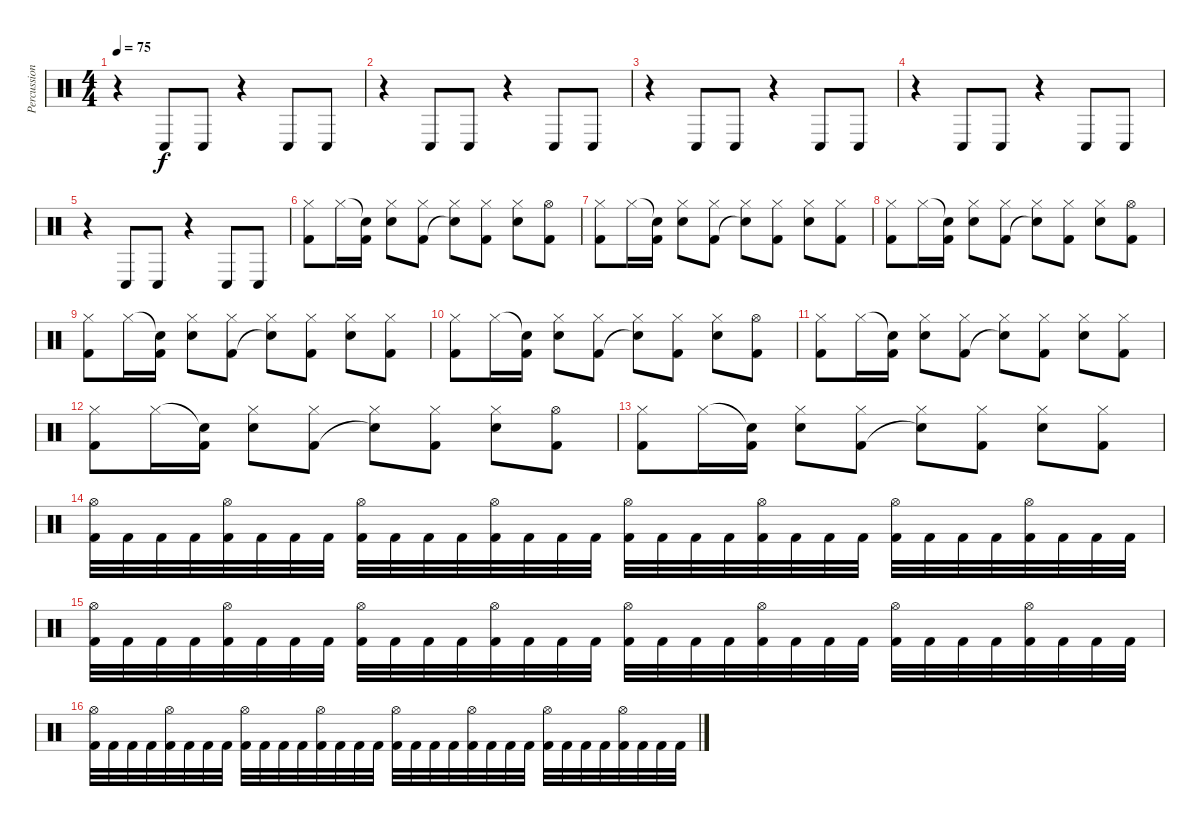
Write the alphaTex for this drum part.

\track ("Percussions" "Percussion") {instrument percussion}
\staff {score}
\articulation defaults
\ts (4 4)
\tempo 75
\clef neutral
\ks c
r.4{dy f} "Conga low (hit)".8 "Conga low (hit)".8 r.4 "Conga low (hit)".8 "Conga low (hit)".8 |
r.4 "Conga low (hit)".8 "Conga low (hit)".8 r.4 "Conga low (hit)".8 "Conga low (hit)".8 |
r.4 "Conga low (hit)".8 "Conga low (hit)".8 r.4 "Conga low (hit)".8 "Conga low (hit)".8 |
r.4 "Conga low (hit)".8 "Conga low (hit)".8 r.4 "Conga low (hit)".8 "Conga low (hit)".8 |
r.4 "Conga low (hit)".8 "Conga low (hit)".8 r.4 "Conga low (hit)".8 "Conga low (hit)".8 |
("Hi-Hat (closed)" "Kick (hit) 2").8{volume 13} "Hi-Hat (closed)".16 ("Snare (hit)"{t} "Kick (hit) 2").16 ("Hi-Hat (closed)" "Electric Snare (hit)").8 ("Hi-Hat (closed)" "Kick (hit) 2").8 ("Hi-Hat (closed)" "Snare (hit)"{t}).8 ("Hi-Hat (closed)" "Kick (hit) 2").8 ("Hi-Hat (closed)" "Electric Snare (hit)").8 ("Hi-Hat (open)" "Kick (hit) 2").8 |
("Hi-Hat (closed)" "Kick (hit) 2").8 "Hi-Hat (closed)".16 ("Snare (hit)"{t} "Kick (hit) 2").16 ("Hi-Hat (closed)" "Electric Snare (hit)").8 ("Hi-Hat (closed)" "Kick (hit) 2").8 ("Hi-Hat (closed)" "Snare (hit)"{t}).8 ("Hi-Hat (closed)" "Kick (hit) 2").8 ("Hi-Hat (closed)" "Electric Snare (hit)").8 ("Hi-Hat (closed)" "Kick (hit) 2").8 |
("Hi-Hat (closed)" "Kick (hit) 2").8 "Hi-Hat (closed)".16 ("Snare (hit)"{t} "Kick (hit) 2").16 ("Hi-Hat (closed)" "Electric Snare (hit)").8 ("Hi-Hat (closed)" "Kick (hit) 2").8 ("Hi-Hat (closed)" "Snare (hit)"{t}).8 ("Hi-Hat (closed)" "Kick (hit) 2").8 ("Hi-Hat (closed)" "Electric Snare (hit)").8 ("Hi-Hat (open)" "Kick (hit) 2").8 |
("Hi-Hat (closed)" "Kick (hit) 2").8 "Hi-Hat (closed)".16 ("Snare (hit)"{t} "Kick (hit) 2").16 ("Hi-Hat (closed)" "Electric Snare (hit)").8 ("Hi-Hat (closed)" "Kick (hit) 2").8 ("Hi-Hat (closed)" "Snare (hit)"{t}).8 ("Hi-Hat (closed)" "Kick (hit) 2").8 ("Hi-Hat (closed)" "Electric Snare (hit)").8 ("Hi-Hat (closed)" "Kick (hit) 2").8 |
("Hi-Hat (closed)" "Kick (hit) 2").8 "Hi-Hat (closed)".16 ("Snare (hit)"{t} "Kick (hit) 2").16 ("Hi-Hat (closed)" "Electric Snare (hit)").8 ("Hi-Hat (closed)" "Kick (hit) 2").8 ("Hi-Hat (closed)" "Snare (hit)"{t}).8 ("Hi-Hat (closed)" "Kick (hit) 2").8 ("Hi-Hat (closed)" "Electric Snare (hit)").8 ("Hi-Hat (open)" "Kick (hit) 2").8 |
("Hi-Hat (closed)" "Kick (hit) 2").8 "Hi-Hat (closed)".16 ("Snare (hit)"{t} "Kick (hit) 2").16 ("Hi-Hat (closed)" "Electric Snare (hit)").8 ("Hi-Hat (closed)" "Kick (hit) 2").8 ("Hi-Hat (closed)" "Snare (hit)"{t}).8 ("Hi-Hat (closed)" "Kick (hit) 2").8 ("Hi-Hat (closed)" "Electric Snare (hit)").8 ("Hi-Hat (closed)" "Kick (hit) 2").8 |
("Hi-Hat (closed)" "Kick (hit) 2").8 "Hi-Hat (closed)".16 ("Snare (hit)"{t} "Kick (hit) 2").16 ("Hi-Hat (closed)" "Electric Snare (hit)").8 ("Hi-Hat (closed)" "Kick (hit) 2").8 ("Hi-Hat (closed)" "Snare (hit)"{t}).8 ("Hi-Hat (closed)" "Kick (hit) 2").8 ("Hi-Hat (closed)" "Electric Snare (hit)").8 ("Hi-Hat (open)" "Kick (hit) 2").8 |
("Hi-Hat (closed)" "Kick (hit) 2").8 "Hi-Hat (closed)".16 ("Snare (hit)"{t} "Kick (hit) 2").16 ("Hi-Hat (closed)" "Electric Snare (hit)").8 ("Hi-Hat (closed)" "Kick (hit) 2").8 ("Hi-Hat (closed)" "Snare (hit)"{t}).8 ("Hi-Hat (closed)" "Kick (hit) 2").8 ("Hi-Hat (closed)" "Electric Snare (hit)").8 ("Hi-Hat (closed)" "Kick (hit) 2").8 |
("Hi-Hat (open)" "Kick (hit) 2").32 "Kick (hit) 2".32 "Kick (hit) 2".32 "Kick (hit) 2".32 ("Hi-Hat (open)" "Kick (hit) 2").32 "Kick (hit) 2".32 "Kick (hit) 2".32 "Kick (hit) 2".32 ("Hi-Hat (open)" "Kick (hit) 2").32 "Kick (hit) 2".32 "Kick (hit) 2".32 "Kick (hit) 2".32 ("Hi-Hat (open)" "Kick (hit) 2").32 "Kick (hit) 2".32 "Kick (hit) 2".32 "Kick (hit) 2".32 ("Hi-Hat (open)" "Kick (hit) 2").32 "Kick (hit) 2".32 "Kick (hit) 2".32 "Kick (hit) 2".32 ("Hi-Hat (open)" "Kick (hit) 2").32 "Kick (hit) 2".32 "Kick (hit) 2".32 "Kick (hit) 2".32 ("Hi-Hat (open)" "Kick (hit) 2").32 "Kick (hit) 2".32 "Kick (hit) 2".32 "Kick (hit) 2".32 ("Hi-Hat (open)" "Kick (hit) 2").32 "Kick (hit) 2".32 "Kick (hit) 2".32 "Kick (hit) 2".32 |
("Hi-Hat (open)" "Kick (hit) 2").32 "Kick (hit) 2".32 "Kick (hit) 2".32 "Kick (hit) 2".32 ("Hi-Hat (open)" "Kick (hit) 2").32 "Kick (hit) 2".32 "Kick (hit) 2".32 "Kick (hit) 2".32 ("Hi-Hat (open)" "Kick (hit) 2").32 "Kick (hit) 2".32 "Kick (hit) 2".32 "Kick (hit) 2".32 ("Hi-Hat (open)" "Kick (hit) 2").32 "Kick (hit) 2".32 "Kick (hit) 2".32 "Kick (hit) 2".32 ("Hi-Hat (open)" "Kick (hit) 2").32 "Kick (hit) 2".32 "Kick (hit) 2".32 "Kick (hit) 2".32 ("Hi-Hat (open)" "Kick (hit) 2").32 "Kick (hit) 2".32 "Kick (hit) 2".32 "Kick (hit) 2".32 ("Hi-Hat (open)" "Kick (hit) 2").32 "Kick (hit) 2".32 "Kick (hit) 2".32 "Kick (hit) 2".32 ("Hi-Hat (open)" "Kick (hit) 2").32 "Kick (hit) 2".32 "Kick (hit) 2".32 "Kick (hit) 2".32 |
("Hi-Hat (open)" "Kick (hit) 2").32 "Kick (hit) 2".32 "Kick (hit) 2".32 "Kick (hit) 2".32 ("Hi-Hat (open)" "Kick (hit) 2").32 "Kick (hit) 2".32 "Kick (hit) 2".32 "Kick (hit) 2".32 ("Hi-Hat (open)" "Kick (hit) 2").32 "Kick (hit) 2".32 "Kick (hit) 2".32 "Kick (hit) 2".32 ("Hi-Hat (open)" "Kick (hit) 2").32 "Kick (hit) 2".32 "Kick (hit) 2".32 "Kick (hit) 2".32 ("Hi-Hat (open)" "Kick (hit) 2").32 "Kick (hit) 2".32 "Kick (hit) 2".32 "Kick (hit) 2".32 ("Hi-Hat (open)" "Kick (hit) 2").32 "Kick (hit) 2".32 "Kick (hit) 2".32 "Kick (hit) 2".32 ("Hi-Hat (open)" "Kick (hit) 2").32 "Kick (hit) 2".32 "Kick (hit) 2".32 "Kick (hit) 2".32 ("Hi-Hat (open)" "Kick (hit) 2").32 "Kick (hit) 2".32 "Kick (hit) 2".32 "Kick (hit) 2".32
